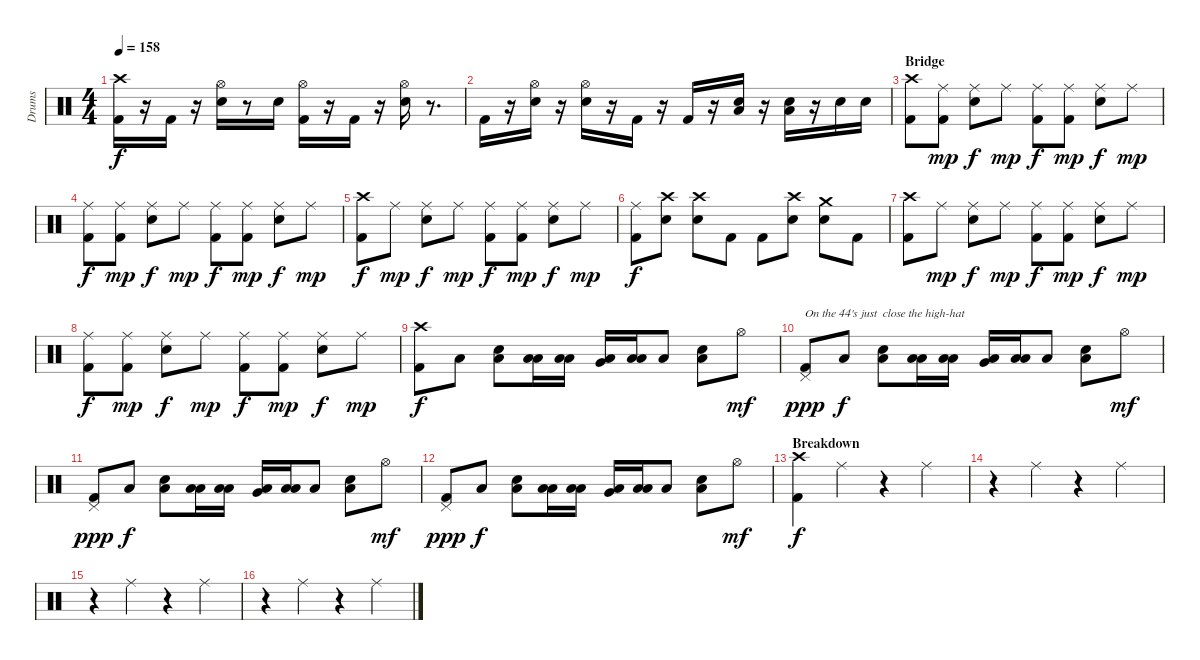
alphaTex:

\track ("Drums" "Drums") {instrument percussion}
\staff {score}
\articulation defaults
\ts (4 4)
\tempo 158
\clef neutral
\ks c
("Crash high (hit)" "Kick (hit) 2").16{dy f} r.16 "Kick (hit) 2".16 r.16 ("Hi-Hat (open)" "Electric Snare (hit)").16 r.8 "Electric Snare (hit)".16 ("Hi-Hat (open)" "Kick (hit) 2").16 r.16 "Kick (hit) 2".16 r.16 ("Hi-Hat (open)" "Electric Snare (hit)").16 r.8{d} |
"Kick (hit) 2".16 r.16 ("Hi-Hat (open)" "Electric Snare (hit)").16 r.16 ("Hi-Hat (open)" "Electric Snare (hit)").16 r.16 "Kick (hit) 2".16 r.16 "Kick (hit) 2".16 r.16 ("Electric Snare (hit)" "Low Floor Tom (hit)").16 r.16 ("Electric Snare (hit)" "Low Floor Tom (hit)").16 r.16 "Electric Snare (hit)".16 "Electric Snare (hit)".16 |
\section ("" "Bridge")
("Crash high (hit)" "Kick (hit) 2").8 ("Ride (middle)" "Kick (hit) 2").8{dy mp} ("Ride (middle)" "Electric Snare (hit)").8{dy f} "Ride (middle)".8{dy mp} ("Ride (middle)" "Kick (hit) 2").8{dy f} ("Ride (middle)" "Kick (hit) 2").8{dy mp} ("Ride (middle)" "Electric Snare (hit)").8{dy f} "Ride (middle)".8{dy mp} |
("Ride (middle)" "Kick (hit) 2").8{dy f} ("Ride (middle)" "Kick (hit) 2").8{dy mp} ("Ride (middle)" "Electric Snare (hit)").8{dy f} "Ride (middle)".8{dy mp} ("Ride (middle)" "Kick (hit) 2").8{dy f} ("Ride (middle)" "Kick (hit) 2").8{dy mp} ("Ride (middle)" "Electric Snare (hit)").8{dy f} "Ride (middle)".8{dy mp} |
("Crash high (hit)" "Kick (hit) 2").8{dy f} "Ride (middle)".8{dy mp} ("Ride (middle)" "Electric Snare (hit)").8{dy f} "Ride (middle)".8{dy mp} ("Ride (middle)" "Kick (hit) 2").8{dy f} ("Ride (middle)" "Kick (hit) 2").8{dy mp} ("Ride (middle)" "Electric Snare (hit)").8{dy f} "Ride (middle)".8{dy mp} |
("Ride (middle)" "Kick (hit) 2").8{dy f} ("Crash high (hit)" "Electric Snare (hit)").8 ("Crash high (hit)" "Electric Snare (hit)").8 "Kick (hit) 2".8 "Kick (hit) 2".8 ("Crash high (hit)" "Electric Snare (hit)").8 ("Crash medium (hit)" "Electric Snare (hit)").8 "Kick (hit) 2".8 |
("Crash high (hit)" "Kick (hit) 2").8 "Ride (middle)".8{dy mp} ("Ride (middle)" "Electric Snare (hit)").8{dy f} "Ride (middle)".8{dy mp} ("Ride (middle)" "Kick (hit) 2").8{dy f} ("Ride (middle)" "Kick (hit) 2").8{dy mp} ("Ride (middle)" "Electric Snare (hit)").8{dy f} "Ride (middle)".8{dy mp} |
("Ride (middle)" "Kick (hit) 2").8{dy f} ("Ride (middle)" "Kick (hit) 2").8{dy mp} ("Ride (middle)" "Electric Snare (hit)").8{dy f} "Ride (middle)".8{dy mp} ("Ride (middle)" "Kick (hit) 2").8{dy f} ("Ride (middle)" "Kick (hit) 2").8{dy mp} ("Ride (middle)" "Electric Snare (hit)").8{dy f} "Ride (middle)".8{dy mp} |
("Crash high (hit)" "Kick (hit) 2").8{dy f} "Low Floor Tom (hit)".8 ("Electric Snare (hit)" "Low Floor Tom (hit)").8 ("Low Tom (hit)" "Low Floor Tom (hit)").16 ("Low Tom (hit)" "Low Floor Tom (hit)").16 ("Very Low Tom (hit)" "Low Floor Tom (hit)").16 ("Low Floor Tom (hit)" "Low Floor Tom (hit)").16 "Low Floor Tom (hit)".8 ("Electric Snare (hit)" "Low Floor Tom (hit)").8 "Hi-Hat (open)".8{dy mf} |
("Pedal Hi-Hat (hit)" "Kick (hit) 2").8{txt "On the 44's just  close the high-hat" dy ppp} "Low Floor Tom (hit)".8{dy f} ("Electric Snare (hit)" "Low Floor Tom (hit)").8 ("Low Tom (hit)" "Low Floor Tom (hit)").16 ("Low Tom (hit)" "Low Floor Tom (hit)").16 ("Very Low Tom (hit)" "Low Floor Tom (hit)").16 ("Low Floor Tom (hit)" "Low Floor Tom (hit)").16 "Low Floor Tom (hit)".8 ("Electric Snare (hit)" "Low Floor Tom (hit)").8 "Hi-Hat (open)".8{dy mf} |
("Pedal Hi-Hat (hit)" "Kick (hit) 2").8{dy ppp} "Low Floor Tom (hit)".8{dy f} ("Electric Snare (hit)" "Low Floor Tom (hit)").8 ("Low Tom (hit)" "Low Floor Tom (hit)").16 ("Low Tom (hit)" "Low Floor Tom (hit)").16 ("Very Low Tom (hit)" "Low Floor Tom (hit)").16 ("Low Floor Tom (hit)" "Low Floor Tom (hit)").16 "Low Floor Tom (hit)".8 ("Electric Snare (hit)" "Low Floor Tom (hit)").8 "Hi-Hat (open)".8{dy mf} |
("Pedal Hi-Hat (hit)" "Kick (hit) 2").8{dy ppp} "Low Floor Tom (hit)".8{dy f} ("Electric Snare (hit)" "Low Floor Tom (hit)").8 ("Low Tom (hit)" "Low Floor Tom (hit)").16 ("Low Tom (hit)" "Low Floor Tom (hit)").16 ("Very Low Tom (hit)" "Low Floor Tom (hit)").16 ("Low Floor Tom (hit)" "Low Floor Tom (hit)").16 "Low Floor Tom (hit)".8 ("Electric Snare (hit)" "Low Floor Tom (hit)").8 "Hi-Hat (open)".8{dy mf} |
\section ("" "Breakdown")
("Crash high (hit)" "Kick (hit) 2").4{dy f} "Ride (middle)".4 r.4 "Ride (middle)".4 |
r.4 "Ride (middle)".4 r.4 "Ride (middle)".4 |
r.4 "Ride (middle)".4 r.4 "Ride (middle)".4 |
r.4 "Ride (middle)".4 r.4 "Ride (middle)".4
